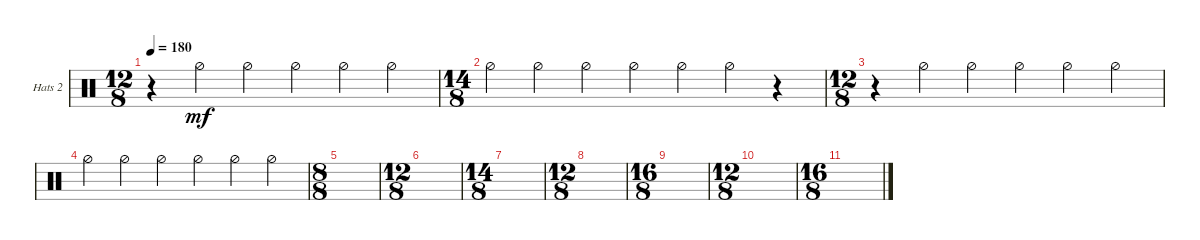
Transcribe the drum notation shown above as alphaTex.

\defaultSystemsLayout 4
\bracketExtendMode groupsimilarinstruments
\firstSystemTrackNameOrientation horizontal
\otherSystemsTrackNameOrientation horizontal
\track ("Hi Hats Open" "Hats 2") {instrument percussion}
\staff {score}
\articulation defaults
\ts (12 8)
\tempo 180
\clef neutral
\scale
0.333333
\ks c
r.4{dy mf} "Hi-Hat (half)".4 "Hi-Hat (half)".4 "Hi-Hat (half)".4 "Hi-Hat (half)".4 "Hi-Hat (half)".4 |
\ts (14 8)
\scale
0.333333 "Hi-Hat (half)".4 "Hi-Hat (half)".4 "Hi-Hat (half)".4 "Hi-Hat (half)".4 "Hi-Hat (half)".4 "Hi-Hat (half)".4 r.4 |
\ts (12 8)
\scale
0.333333 r.4 "Hi-Hat (half)".4 "Hi-Hat (half)".4 "Hi-Hat (half)".4 "Hi-Hat (half)".4 "Hi-Hat (half)".4 |
\scale
0.333333 "Hi-Hat (half)".4 "Hi-Hat (half)".4 "Hi-Hat (half)".4 "Hi-Hat (half)".4 "Hi-Hat (half)".4 "Hi-Hat (half)".4 |
\ts (8 8)
\scale
0.333333 |
\ts (12 8)
\scale
0.333333 |
\ts (14 8)
\scale
0.333333 |
\ts (12 8)
\scale
0.333333 |
\ts (16 8)
\scale
0.333333 |
\ts (12 8)
\scale
0.333333 |
\ts (16 8)
\scale
0.333333 |
\scale
0.333333 |
\scale
0.333333 |
\scale
0.333333 |
\scale
0.333333 |
\scale
0.333333
